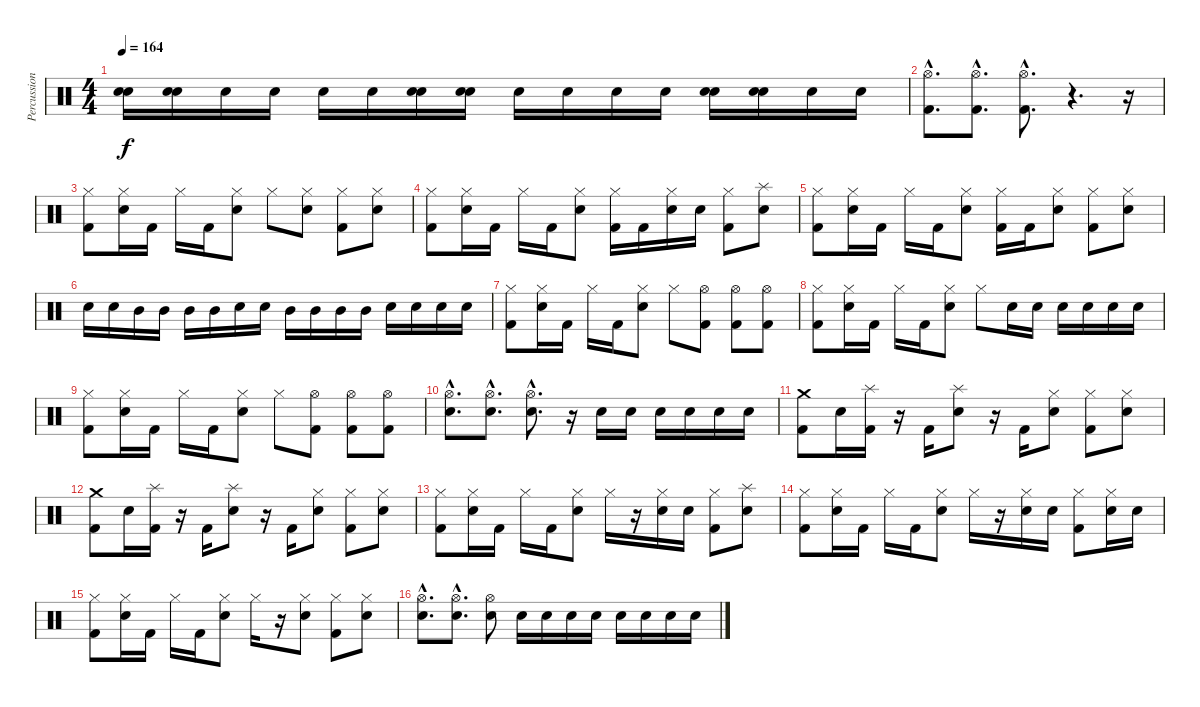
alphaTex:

\track ("Percussion" "Percussion") {instrument percussion}
\staff {score}
\articulation defaults
\ts (4 4)
\tempo 164
\clef neutral
\ks c
("Electric Snare (hit)" "Electric Snare (hit)").16{dy f} ("Electric Snare (hit)" "Electric Snare (hit)").16 "Electric Snare (hit)".16 "Electric Snare (hit)".16 "Electric Snare (hit)".16 "Electric Snare (hit)".16 ("Electric Snare (hit)" "Electric Snare (hit)").16 ("Electric Snare (hit)" "Electric Snare (hit)").16 "Electric Snare (hit)".16 "Electric Snare (hit)".16 "Electric Snare (hit)".16 "Electric Snare (hit)".16 ("Electric Snare (hit)" "Electric Snare (hit)").16 ("Electric Snare (hit)" "Electric Snare (hit)").16 "Electric Snare (hit)".16 "Electric Snare (hit)".16 |
("Hi-Hat (open)"{hac} "Kick (hit) 2"{hac}).8{d} ("Hi-Hat (open)"{hac} "Kick (hit) 2"{hac}).8{d} ("Hi-Hat (open)"{hac} "Kick (hit) 2"{hac}).8{d} r.4{d} r.16 |
("Hi-Hat (closed)" "Kick (hit) 2").8 ("Hi-Hat (closed)" "Electric Snare (hit)").16 "Kick (hit) 2".16 "Hi-Hat (closed)".16 "Kick (hit) 2".16 ("Hi-Hat (closed)" "Electric Snare (hit)").8 "Hi-Hat (closed)".8 ("Hi-Hat (closed)" "Electric Snare (hit)").8 ("Hi-Hat (closed)" "Kick (hit) 2").8 ("Hi-Hat (closed)" "Electric Snare (hit)").8 |
("Hi-Hat (closed)" "Kick (hit) 2").8 ("Hi-Hat (closed)" "Electric Snare (hit)").16 "Kick (hit) 2".16 "Hi-Hat (closed)".16 "Kick (hit) 2".16 ("Hi-Hat (closed)" "Electric Snare (hit)").8 ("Hi-Hat (closed)" "Kick (hit) 2").16 "Kick (hit) 2".16 ("Hi-Hat (closed)" "Electric Snare (hit)").16 "Electric Snare (hit)".16 ("Hi-Hat (closed)" "Kick (hit) 2").8 ("Splash (hit)" "Electric Snare (hit)").8 |
("Hi-Hat (closed)" "Kick (hit) 2").8 ("Hi-Hat (closed)" "Electric Snare (hit)").16 "Kick (hit) 2".16 "Hi-Hat (closed)".16 "Kick (hit) 2".16 ("Hi-Hat (closed)" "Electric Snare (hit)").8 ("Hi-Hat (closed)" "Kick (hit) 2").16 "Kick (hit) 2".16 ("Hi-Hat (closed)" "Electric Snare (hit)").8 ("Hi-Hat (closed)" "Kick (hit) 2").8 ("Hi-Hat (closed)" "Electric Snare (hit)").8 |
"Electric Snare (hit)".16 "Electric Snare (hit)".16 "Mid Tom (hit)".16 "Mid Tom (hit)".16 "Mid Tom (hit)".16 "Mid Tom (hit)".16 "Electric Snare (hit)".16 "Electric Snare (hit)".16 "Mid Tom (hit)".16 "Mid Tom (hit)".16 "Mid Tom (hit)".16 "Mid Tom (hit)".16 "Electric Snare (hit)".16 "Electric Snare (hit)".16 "Electric Snare (hit)".16 "Electric Snare (hit)".16 |
("Hi-Hat (closed)" "Kick (hit) 2").8 ("Hi-Hat (closed)" "Electric Snare (hit)").16 "Kick (hit) 2".16 "Hi-Hat (closed)".16 "Kick (hit) 2".16 ("Hi-Hat (closed)" "Electric Snare (hit)").8 "Hi-Hat (closed)".8 ("Hi-Hat (open)" "Kick (hit) 2").8 ("Hi-Hat (open)" "Kick (hit) 2").8 ("Hi-Hat (open)" "Kick (hit) 2").8 |
("Hi-Hat (closed)" "Kick (hit) 2").8 ("Hi-Hat (closed)" "Electric Snare (hit)").16 "Kick (hit) 2".16 "Hi-Hat (closed)".16 "Kick (hit) 2".16 ("Hi-Hat (closed)" "Electric Snare (hit)").8 "Hi-Hat (closed)".8 "Electric Snare (hit)".16 "Electric Snare (hit)".16 "Electric Snare (hit)".16 "Electric Snare (hit)".16 "Electric Snare (hit)".16 "Electric Snare (hit)".16 |
("Hi-Hat (closed)" "Kick (hit) 2").8 ("Hi-Hat (closed)" "Electric Snare (hit)").16 "Kick (hit) 2".16 "Hi-Hat (closed)".16 "Kick (hit) 2".16 ("Hi-Hat (closed)" "Electric Snare (hit)").8 "Hi-Hat (closed)".8 ("Hi-Hat (open)" "Kick (hit) 2").8 ("Hi-Hat (open)" "Kick (hit) 2").8 ("Hi-Hat (open)" "Kick (hit) 2").8 |
("Hi-Hat (open)"{hac} "Electric Snare (hit)"{hac}).8{d} ("Hi-Hat (open)"{hac} "Electric Snare (hit)"{hac}).8{d} ("Hi-Hat (open)"{hac} "Electric Snare (hit)"{hac}).8{d} r.16 "Electric Snare (hit)".16 "Electric Snare (hit)".16 "Electric Snare (hit)".16 "Electric Snare (hit)".16 "Electric Snare (hit)".16 "Electric Snare (hit)".16 |
("Crash medium (hit)" "Kick (hit) 2").8 "Electric Snare (hit)".16 ("Splash (hit)" "Kick (hit) 2").16 r.16 "Kick (hit) 2".16 ("Splash (hit)" "Electric Snare (hit)").8 r.16 "Kick (hit) 2".16 ("Hi-Hat (closed)" "Electric Snare (hit)").8 ("Hi-Hat (closed)" "Kick (hit) 2").8 ("Hi-Hat (closed)" "Electric Snare (hit)").8 |
("Crash medium (hit)" "Kick (hit) 2").8 "Electric Snare (hit)".16 ("Splash (hit)" "Kick (hit) 2").16 r.16 "Kick (hit) 2".16 ("Splash (hit)" "Electric Snare (hit)").8 r.16 "Kick (hit) 2".16 ("Hi-Hat (closed)" "Electric Snare (hit)").8 ("Hi-Hat (closed)" "Kick (hit) 2").8 ("Hi-Hat (closed)" "Electric Snare (hit)").8 |
("Hi-Hat (closed)" "Kick (hit) 2").8 ("Hi-Hat (closed)" "Electric Snare (hit)").16 "Kick (hit) 2".16 "Hi-Hat (closed)".16 "Kick (hit) 2".16 ("Hi-Hat (closed)" "Electric Snare (hit)").8 "Hi-Hat (closed)".16 r.16 ("Hi-Hat (closed)" "Electric Snare (hit)").16 "Electric Snare (hit)".16 ("Hi-Hat (closed)" "Kick (hit) 2").8 ("Splash (hit)" "Electric Snare (hit)").8 |
("Hi-Hat (closed)" "Kick (hit) 2").8 ("Hi-Hat (closed)" "Electric Snare (hit)").16 "Kick (hit) 2".16 "Hi-Hat (closed)".16 "Kick (hit) 2".16 ("Hi-Hat (closed)" "Electric Snare (hit)").8 "Hi-Hat (closed)".16 r.16 ("Hi-Hat (closed)" "Electric Snare (hit)").16 "Electric Snare (hit)".16 ("Hi-Hat (closed)" "Kick (hit) 2").8 ("Hi-Hat (closed)" "Electric Snare (hit)").16 "Electric Snare (hit)".16 |
("Hi-Hat (closed)" "Kick (hit) 2").8 ("Hi-Hat (closed)" "Electric Snare (hit)").16 "Kick (hit) 2".16 "Hi-Hat (closed)".16 "Kick (hit) 2".16 ("Hi-Hat (closed)" "Electric Snare (hit)").8 "Hi-Hat (closed)".16 r.16 ("Hi-Hat (closed)" "Electric Snare (hit)").8 ("Hi-Hat (closed)" "Kick (hit) 2").8 ("Hi-Hat (closed)" "Electric Snare (hit)").8 |
("Hi-Hat (open)"{hac} "Electric Snare (hit)"{hac}).8{d} ("Hi-Hat (open)"{hac} "Electric Snare (hit)"{hac}).8{d} ("Hi-Hat (open)" "Electric Snare (hit)").8 "Electric Snare (hit)".16 "Electric Snare (hit)".16 "Electric Snare (hit)".16 "Electric Snare (hit)".16 "Electric Snare (hit)".16 "Electric Snare (hit)".16 "Electric Snare (hit)".16 "Electric Snare (hit)".16
